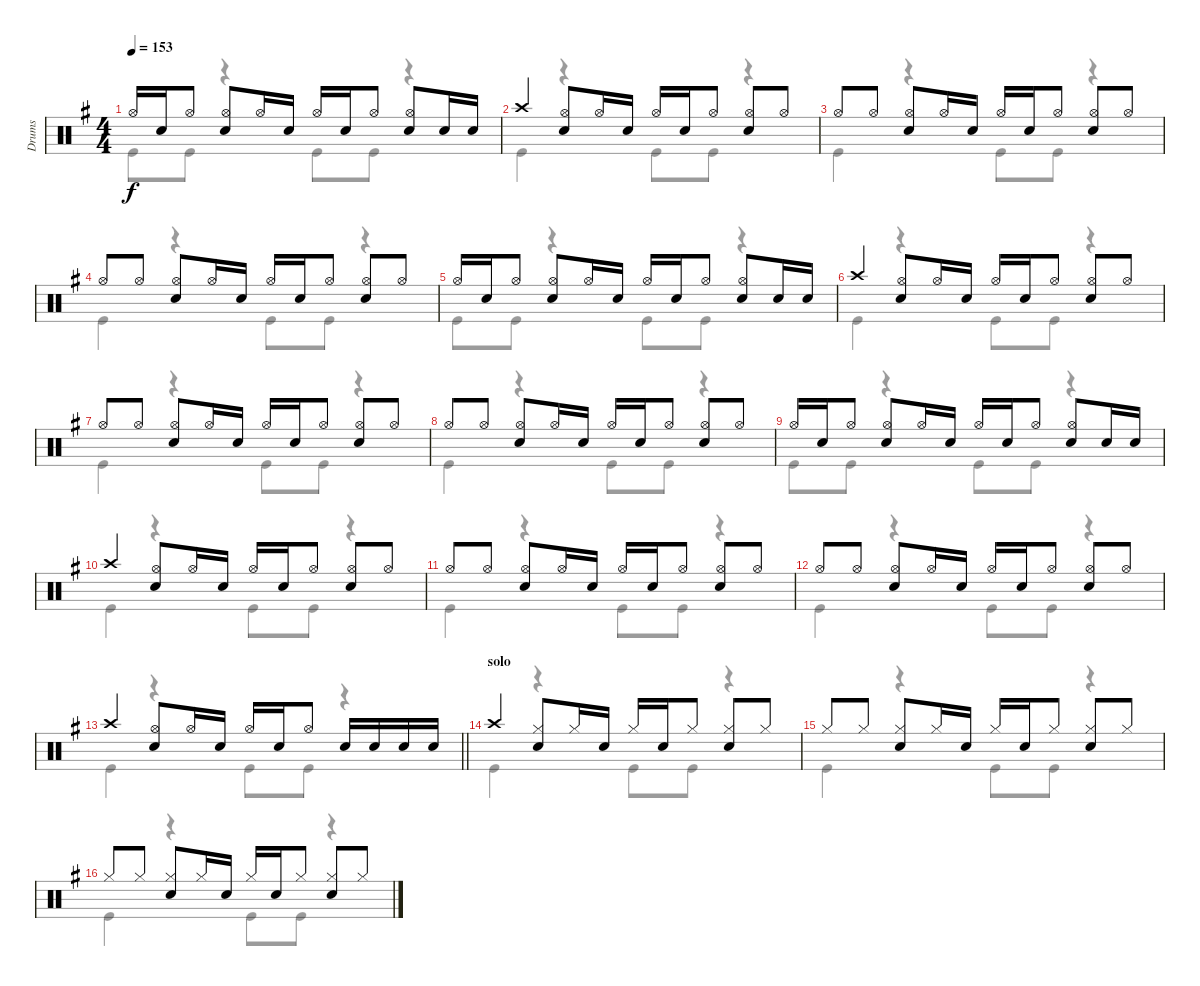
\track ("Drums" "Drums") {instrument percussion}
\staff {score}
\articulation defaults
\voice
\ts (4 4)
\tempo 153
\clef neutral
\ks g "Hi-Hat (open)".16{dy f} "Snare (hit) 2".16 "Hi-Hat (open)".8
("Hi-Hat (open)" "Snare (hit) 2").8 "Hi-Hat (open)".16 "Snare (hit) 2".16 "Hi-Hat (open)".16 "Snare (hit) 2".16 "Hi-Hat (open)".8 ("Hi-Hat (open)" "Snare (hit) 2").8 "Snare (hit) 2".16 "Snare (hit) 2".16 |
"Crash high (hit)".4 ("Hi-Hat (open)" "Snare (hit) 2").8 "Hi-Hat (open)".16 "Snare (hit) 2".16 "Hi-Hat (open)".16 "Snare (hit) 2".16 "Hi-Hat (open)".8 ("Hi-Hat (open)" "Snare (hit) 2").8 "Hi-Hat (open)".8 |
"Hi-Hat (open)".8 "Hi-Hat (open)".8 ("Hi-Hat (open)" "Snare (hit) 2").8 "Hi-Hat (open)".16 "Snare (hit) 2".16 "Hi-Hat (open)".16 "Snare (hit) 2".16 "Hi-Hat (open)".8 ("Hi-Hat (open)" "Snare (hit) 2").8 "Hi-Hat (open)".8 |
"Hi-Hat (open)".8 "Hi-Hat (open)".8 ("Hi-Hat (open)" "Snare (hit) 2").8 "Hi-Hat (open)".16 "Snare (hit) 2".16 "Hi-Hat (open)".16 "Snare (hit) 2".16 "Hi-Hat (open)".8 ("Hi-Hat (open)" "Snare (hit) 2").8 "Hi-Hat (open)".8 |
"Hi-Hat (open)".16 "Snare (hit) 2".16 "Hi-Hat (open)".8 ("Hi-Hat (open)" "Snare (hit) 2").8 "Hi-Hat (open)".16 "Snare (hit) 2".16 "Hi-Hat (open)".16 "Snare (hit) 2".16 "Hi-Hat (open)".8 ("Hi-Hat (open)" "Snare (hit) 2").8 "Snare (hit) 2".16 "Snare (hit) 2".16 |
"Crash high (hit)".4 ("Hi-Hat (open)" "Snare (hit) 2").8 "Hi-Hat (open)".16 "Snare (hit) 2".16 "Hi-Hat (open)".16 "Snare (hit) 2".16 "Hi-Hat (open)".8 ("Hi-Hat (open)" "Snare (hit) 2").8 "Hi-Hat (open)".8 |
"Hi-Hat (open)".8 "Hi-Hat (open)".8 ("Hi-Hat (open)" "Snare (hit) 2").8 "Hi-Hat (open)".16 "Snare (hit) 2".16 "Hi-Hat (open)".16 "Snare (hit) 2".16 "Hi-Hat (open)".8 ("Hi-Hat (open)" "Snare (hit) 2").8 "Hi-Hat (open)".8 |
"Hi-Hat (open)".8 "Hi-Hat (open)".8 ("Hi-Hat (open)" "Snare (hit) 2").8 "Hi-Hat (open)".16 "Snare (hit) 2".16 "Hi-Hat (open)".16 "Snare (hit) 2".16 "Hi-Hat (open)".8 ("Hi-Hat (open)" "Snare (hit) 2").8 "Hi-Hat (open)".8 |
"Hi-Hat (open)".16 "Snare (hit) 2".16 "Hi-Hat (open)".8 ("Hi-Hat (open)" "Snare (hit) 2").8 "Hi-Hat (open)".16 "Snare (hit) 2".16 "Hi-Hat (open)".16 "Snare (hit) 2".16 "Hi-Hat (open)".8 ("Hi-Hat (open)" "Snare (hit) 2").8 "Snare (hit) 2".16 "Snare (hit) 2".16 |
"Crash high (hit)".4 ("Hi-Hat (open)" "Snare (hit) 2").8 "Hi-Hat (open)".16 "Snare (hit) 2".16 "Hi-Hat (open)".16 "Snare (hit) 2".16 "Hi-Hat (open)".8 ("Hi-Hat (open)" "Snare (hit) 2").8 "Hi-Hat (open)".8 |
"Hi-Hat (open)".8 "Hi-Hat (open)".8 ("Hi-Hat (open)" "Snare (hit) 2").8 "Hi-Hat (open)".16 "Snare (hit) 2".16 "Hi-Hat (open)".16 "Snare (hit) 2".16 "Hi-Hat (open)".8 ("Hi-Hat (open)" "Snare (hit) 2").8 "Hi-Hat (open)".8 |
"Hi-Hat (open)".8 "Hi-Hat (open)".8 ("Hi-Hat (open)" "Snare (hit) 2").8 "Hi-Hat (open)".16 "Snare (hit) 2".16 "Hi-Hat (open)".16 "Snare (hit) 2".16 "Hi-Hat (open)".8 ("Hi-Hat (open)" "Snare (hit) 2").8 "Hi-Hat (open)".8 |
\barLineRight lightlight "Crash high (hit)".4
("Hi-Hat (open)" "Snare (hit) 2").8 "Hi-Hat (open)".16 "Snare (hit) 2".16 "Hi-Hat (open)".16 "Snare (hit) 2".16 "Hi-Hat (open)".8 "Snare (hit) 2".16 "Snare (hit) 2".16 "Snare (hit) 2".16 "Snare (hit) 2".16 |
\section ("" "solo")
"Crash high (hit)".4 ("Hi-Hat (closed)" "Snare (hit) 2").8 "Hi-Hat (closed)".16 "Snare (hit) 2".16 "Hi-Hat (closed)".16 "Snare (hit) 2".16 "Hi-Hat (closed)".8 ("Hi-Hat (closed)" "Snare (hit) 2").8 "Hi-Hat (closed)".8 |
"Hi-Hat (closed)".8 "Hi-Hat (closed)".8 ("Hi-Hat (closed)" "Snare (hit) 2").8 "Hi-Hat (closed)".16 "Snare (hit) 2".16 "Hi-Hat (closed)".16 "Snare (hit) 2".16 "Hi-Hat (closed)".8 ("Hi-Hat (closed)" "Snare (hit) 2").8 "Hi-Hat (closed)".8 |
"Hi-Hat (closed)".8 "Hi-Hat (closed)".8 ("Hi-Hat (closed)" "Snare (hit) 2").8 "Hi-Hat (closed)".16 "Snare (hit) 2".16 "Hi-Hat (closed)".16 "Snare (hit) 2".16 "Hi-Hat (closed)".8 ("Hi-Hat (closed)" "Snare (hit) 2").8 "Hi-Hat (closed)".8
\voice
\clef neutral
\ottava regular
\simile none
\ks g "Kick (hit)".8{dy f} "Kick (hit)".8
r.4 "Kick (hit)".8 "Kick (hit)".8 r.4 |
"Kick (hit)".4 r.4 "Kick (hit)".8 "Kick (hit)".8 r.4 |
"Kick (hit)".4 r.4 "Kick (hit)".8 "Kick (hit)".8 r.4 |
"Kick (hit)".4 r.4 "Kick (hit)".8 "Kick (hit)".8 r.4 |
"Kick (hit)".8 "Kick (hit)".8 r.4 "Kick (hit)".8 "Kick (hit)".8 r.4 |
"Kick (hit)".4 r.4 "Kick (hit)".8 "Kick (hit)".8 r.4 |
"Kick (hit)".4 r.4 "Kick (hit)".8 "Kick (hit)".8 r.4 |
"Kick (hit)".4 r.4 "Kick (hit)".8 "Kick (hit)".8 r.4 |
"Kick (hit)".8 "Kick (hit)".8 r.4 "Kick (hit)".8 "Kick (hit)".8 r.4 |
"Kick (hit)".4 r.4 "Kick (hit)".8 "Kick (hit)".8 r.4 |
"Kick (hit)".4 r.4 "Kick (hit)".8 "Kick (hit)".8 r.4 |
"Kick (hit)".4 r.4 "Kick (hit)".8 "Kick (hit)".8 r.4 |
\barLineRight lightlight "Kick (hit)".4
r.4 "Kick (hit)".8 "Kick (hit)".8 r.4 |
"Kick (hit)".4 r.4 "Kick (hit)".8 "Kick (hit)".8 r.4 |
"Kick (hit)".4 r.4 "Kick (hit)".8 "Kick (hit)".8 r.4 |
"Kick (hit)".4 r.4 "Kick (hit)".8 "Kick (hit)".8 r.4
